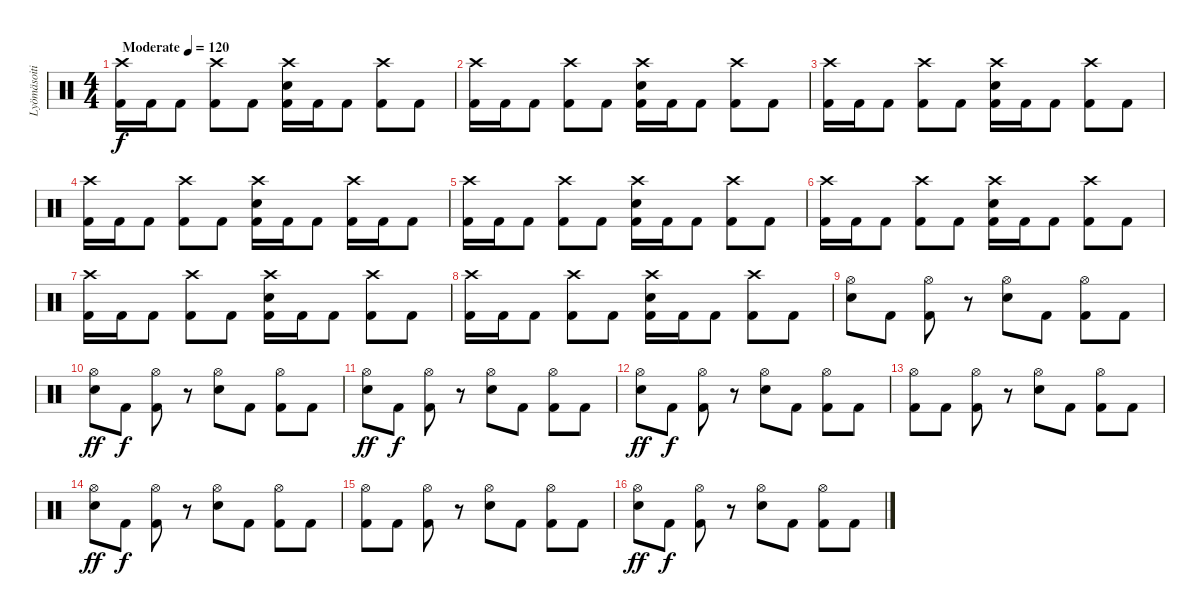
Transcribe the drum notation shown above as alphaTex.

\track ("Lyömäsoitin" "Lyömäsoiti") {instrument percussion}
\staff {score}
\articulation defaults
\ts (4 4)
\tempo (120 "Moderate")
\clef neutral
\ks c
("Crash high (hit)" "Kick (hit) 2").16{dy f} "Kick (hit) 2".16 "Kick (hit) 2".8 ("Crash high (hit)" "Kick (hit) 2").8 "Kick (hit) 2".8 ("Crash high (hit)" "Snare (hit) 2" "Kick (hit) 2").16 "Kick (hit) 2".16 "Kick (hit) 2".8 ("Crash high (hit)" "Kick (hit) 2").8 "Kick (hit) 2".8 |
("Crash high (hit)" "Kick (hit) 2").16 "Kick (hit) 2".16 "Kick (hit) 2".8 ("Crash high (hit)" "Kick (hit) 2").8 "Kick (hit) 2".8 ("Crash high (hit)" "Snare (hit) 2" "Kick (hit) 2").16 "Kick (hit) 2".16 "Kick (hit) 2".8 ("Crash high (hit)" "Kick (hit) 2").8 "Kick (hit) 2".8 |
("Crash high (hit)" "Kick (hit) 2").16 "Kick (hit) 2".16 "Kick (hit) 2".8 ("Crash high (hit)" "Kick (hit) 2").8 "Kick (hit) 2".8 ("Crash high (hit)" "Snare (hit) 2" "Kick (hit) 2").16 "Kick (hit) 2".16 "Kick (hit) 2".8 ("Crash high (hit)" "Kick (hit) 2").8 "Kick (hit) 2".8 |
("Crash high (hit)" "Kick (hit) 2").16 "Kick (hit) 2".16 "Kick (hit) 2".8 ("Crash high (hit)" "Kick (hit) 2").8 "Kick (hit) 2".8 ("Crash high (hit)" "Snare (hit) 2" "Kick (hit) 2").16 "Kick (hit) 2".16 "Kick (hit) 2".8 ("Crash high (hit)" "Kick (hit) 2").16 "Kick (hit) 2".16 "Kick (hit) 2".8 |
("Crash high (hit)" "Kick (hit) 2").16 "Kick (hit) 2".16 "Kick (hit) 2".8 ("Crash high (hit)" "Kick (hit) 2").8 "Kick (hit) 2".8 ("Crash high (hit)" "Snare (hit) 2" "Kick (hit) 2").16 "Kick (hit) 2".16 "Kick (hit) 2".8 ("Crash high (hit)" "Kick (hit) 2").8 "Kick (hit) 2".8 |
("Crash high (hit)" "Kick (hit) 2").16 "Kick (hit) 2".16 "Kick (hit) 2".8 ("Crash high (hit)" "Kick (hit) 2").8 "Kick (hit) 2".8 ("Crash high (hit)" "Snare (hit) 2" "Kick (hit) 2").16 "Kick (hit) 2".16 "Kick (hit) 2".8 ("Crash high (hit)" "Kick (hit) 2").8 "Kick (hit) 2".8 |
("Crash high (hit)" "Kick (hit) 2").16 "Kick (hit) 2".16 "Kick (hit) 2".8 ("Crash high (hit)" "Kick (hit) 2").8 "Kick (hit) 2".8 ("Crash high (hit)" "Snare (hit) 2" "Kick (hit) 2").16 "Kick (hit) 2".16 "Kick (hit) 2".8 ("Crash high (hit)" "Kick (hit) 2").8 "Kick (hit) 2".8 |
("Crash high (hit)" "Kick (hit) 2").16 "Kick (hit) 2".16 "Kick (hit) 2".8 ("Crash high (hit)" "Kick (hit) 2").8 "Kick (hit) 2".8 ("Crash high (hit)" "Snare (hit) 2" "Kick (hit) 2").16 "Kick (hit) 2".16 "Kick (hit) 2".8 ("Crash high (hit)" "Kick (hit) 2").8 "Kick (hit) 2".8 |
("Hi-Hat (open)" "Snare (hit) 2").8 "Kick (hit) 2".8 ("Hi-Hat (open)" "Kick (hit) 2").8 r.8 ("Hi-Hat (open)" "Snare (hit) 2").8 "Kick (hit) 2".8 ("Hi-Hat (open)" "Kick (hit) 2").8 "Kick (hit) 2".8 |
("Hi-Hat (open)" "Snare (hit) 2").8{dy ff} "Kick (hit) 2".8{dy f} ("Hi-Hat (open)" "Kick (hit) 2").8 r.8 ("Hi-Hat (open)" "Snare (hit) 2").8 "Kick (hit) 2".8 ("Hi-Hat (open)" "Kick (hit) 2").8 "Kick (hit) 2".8 |
("Hi-Hat (open)" "Snare (hit) 2").8{dy ff} "Kick (hit) 2".8{dy f} ("Hi-Hat (open)" "Kick (hit) 2").8 r.8 ("Hi-Hat (open)" "Snare (hit) 2").8 "Kick (hit) 2".8 ("Hi-Hat (open)" "Kick (hit) 2").8 "Kick (hit) 2".8 |
("Hi-Hat (open)" "Snare (hit) 2").8{dy ff} "Kick (hit) 2".8{dy f} ("Hi-Hat (open)" "Kick (hit) 2").8 r.8 ("Hi-Hat (open)" "Snare (hit) 2").8 "Kick (hit) 2".8 ("Hi-Hat (open)" "Kick (hit) 2").8 "Kick (hit) 2".8 |
("Hi-Hat (open)" "Kick (hit) 2").8 "Kick (hit) 2".8 ("Hi-Hat (open)" "Kick (hit) 2").8 r.8 ("Hi-Hat (open)" "Snare (hit) 2").8 "Kick (hit) 2".8 ("Hi-Hat (open)" "Kick (hit) 2").8 "Kick (hit) 2".8 |
("Hi-Hat (open)" "Snare (hit) 2").8{dy ff} "Kick (hit) 2".8{dy f} ("Hi-Hat (open)" "Kick (hit) 2").8 r.8 ("Hi-Hat (open)" "Snare (hit) 2").8 "Kick (hit) 2".8 ("Hi-Hat (open)" "Kick (hit) 2").8 "Kick (hit) 2".8 |
("Hi-Hat (open)" "Kick (hit) 2").8 "Kick (hit) 2".8 ("Hi-Hat (open)" "Kick (hit) 2").8 r.8 ("Hi-Hat (open)" "Snare (hit) 2").8 "Kick (hit) 2".8 ("Hi-Hat (open)" "Kick (hit) 2").8 "Kick (hit) 2".8 |
("Hi-Hat (open)" "Snare (hit) 2").8{dy ff} "Kick (hit) 2".8{dy f} ("Hi-Hat (open)" "Kick (hit) 2").8 r.8 ("Hi-Hat (open)" "Snare (hit) 2").8 "Kick (hit) 2".8 ("Hi-Hat (open)" "Kick (hit) 2").8 "Kick (hit) 2".8
